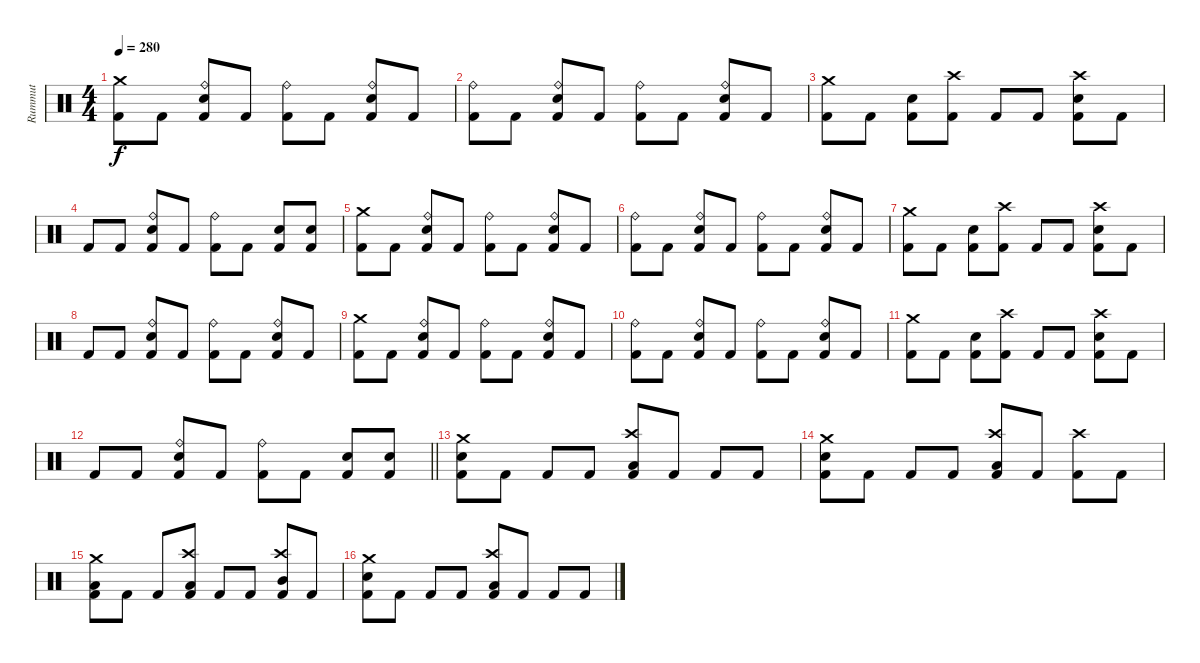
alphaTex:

\track ("Rummut" "Rummut") {instrument percussion}
\staff {score}
\articulation defaults
\ts (4 4)
\tempo 280
\clef neutral
\ks c
("Crash medium (hit)" "Kick (hit) 2").8{dy f} "Kick (hit) 2".8 ("Ride (bell)" "Snare (hit) 2" "Kick (hit) 2").8 "Kick (hit) 2".8 ("Ride (bell)" "Kick (hit) 2").8 "Kick (hit) 2".8 ("Ride (bell)" "Snare (hit) 2" "Kick (hit) 2").8 "Kick (hit) 2".8 |
("Ride (bell)" "Kick (hit) 2").8 "Kick (hit) 2".8 ("Ride (bell)" "Snare (hit) 2" "Kick (hit) 2").8 "Kick (hit) 2".8 ("Ride (bell)" "Kick (hit) 2").8 "Kick (hit) 2".8 ("Ride (bell)" "Snare (hit) 2" "Kick (hit) 2").8 "Kick (hit) 2".8 |
("Crash medium (hit)" "Kick (hit) 2").8 "Kick (hit) 2".8 ("Snare (hit) 2" "Kick (hit) 2").8 ("Crash high (hit)" "Kick (hit) 2").8 "Kick (hit) 2".8 "Kick (hit) 2".8 ("Crash high (hit)" "Snare (hit) 2" "Kick (hit) 2").8 "Kick (hit) 2".8 |
"Kick (hit) 2".8 "Kick (hit) 2".8 ("Ride (bell)" "Snare (hit) 2" "Kick (hit) 2").8 "Kick (hit) 2".8 ("Ride (bell)" "Kick (hit) 2").8 "Kick (hit) 2".8 ("Snare (hit) 2" "Kick (hit) 2").8 ("Snare (hit) 2" "Kick (hit) 2").8 |
("Crash medium (hit)" "Kick (hit) 2").8 "Kick (hit) 2".8 ("Ride (bell)" "Snare (hit) 2" "Kick (hit) 2").8 "Kick (hit) 2".8 ("Ride (bell)" "Kick (hit) 2").8 "Kick (hit) 2".8 ("Ride (bell)" "Snare (hit) 2" "Kick (hit) 2").8 "Kick (hit) 2".8 |
("Ride (bell)" "Kick (hit) 2").8 "Kick (hit) 2".8 ("Ride (bell)" "Snare (hit) 2" "Kick (hit) 2").8 "Kick (hit) 2".8 ("Ride (bell)" "Kick (hit) 2").8 "Kick (hit) 2".8 ("Ride (bell)" "Snare (hit) 2" "Kick (hit) 2").8 "Kick (hit) 2".8 |
("Crash medium (hit)" "Kick (hit) 2").8 "Kick (hit) 2".8 ("Snare (hit) 2" "Kick (hit) 2").8 ("Crash high (hit)" "Kick (hit) 2").8 "Kick (hit) 2".8 "Kick (hit) 2".8 ("Crash high (hit)" "Snare (hit) 2" "Kick (hit) 2").8 "Kick (hit) 2".8 |
"Kick (hit) 2".8 "Kick (hit) 2".8 ("Ride (bell)" "Snare (hit) 2" "Kick (hit) 2").8 "Kick (hit) 2".8 ("Ride (bell)" "Kick (hit) 2").8 "Kick (hit) 2".8 ("Ride (bell)" "Snare (hit) 2" "Kick (hit) 2").8 "Kick (hit) 2".8 |
("Crash medium (hit)" "Kick (hit) 2").8 "Kick (hit) 2".8 ("Ride (bell)" "Snare (hit) 2" "Kick (hit) 2").8 "Kick (hit) 2".8 ("Ride (bell)" "Kick (hit) 2").8 "Kick (hit) 2".8 ("Ride (bell)" "Snare (hit) 2" "Kick (hit) 2").8 "Kick (hit) 2".8 |
("Ride (bell)" "Kick (hit) 2").8 "Kick (hit) 2".8 ("Ride (bell)" "Snare (hit) 2" "Kick (hit) 2").8 "Kick (hit) 2".8 ("Ride (bell)" "Kick (hit) 2").8 "Kick (hit) 2".8 ("Ride (bell)" "Snare (hit) 2" "Kick (hit) 2").8 "Kick (hit) 2".8 |
("Crash medium (hit)" "Kick (hit) 2").8 "Kick (hit) 2".8 ("Snare (hit) 2" "Kick (hit) 2").8 ("Crash high (hit)" "Kick (hit) 2").8 "Kick (hit) 2".8 "Kick (hit) 2".8 ("Crash high (hit)" "Snare (hit) 2" "Kick (hit) 2").8 "Kick (hit) 2".8 |
\barLineRight lightlight "Kick (hit) 2".8 "Kick (hit) 2".8
("Ride (bell)" "Snare (hit) 2" "Kick (hit) 2").8 "Kick (hit) 2".8 ("Ride (bell)" "Kick (hit) 2").8 "Kick (hit) 2".8 ("Snare (hit) 2" "Kick (hit) 2").8 ("Snare (hit) 2" "Kick (hit) 2").8 |
("Crash medium (hit)" "Snare (hit) 2" "Kick (hit) 2").8 "Kick (hit) 2".8 "Kick (hit) 2".8 "Kick (hit) 2".8 ("Crash high (hit)" "Low Tom (hit)" "Kick (hit) 2").8 "Kick (hit) 2".8 "Kick (hit) 2".8 "Kick (hit) 2".8 |
("Crash medium (hit)" "Snare (hit) 2" "Kick (hit) 2").8 "Kick (hit) 2".8 "Kick (hit) 2".8 "Kick (hit) 2".8 ("Crash high (hit)" "Low Tom (hit)" "Kick (hit) 2").8 "Kick (hit) 2".8 ("Crash high (hit)" "Kick (hit) 2").8 "Kick (hit) 2".8 |
("Crash medium (hit)" "Low Tom (hit)" "Kick (hit) 2").8 "Kick (hit) 2".8 "Kick (hit) 2".8 ("Crash high (hit)" "Low Tom (hit)" "Kick (hit) 2").8 "Kick (hit) 2".8 "Kick (hit) 2".8 ("Crash high (hit)" "Mid Tom (hit)" "Kick (hit) 2").8 "Kick (hit) 2".8 |
("Crash medium (hit)" "Snare (hit) 2" "Kick (hit) 2").8 "Kick (hit) 2".8 "Kick (hit) 2".8 "Kick (hit) 2".8 ("Crash high (hit)" "Low Tom (hit)" "Kick (hit) 2").8 "Kick (hit) 2".8 "Kick (hit) 2".8 "Kick (hit) 2".8
